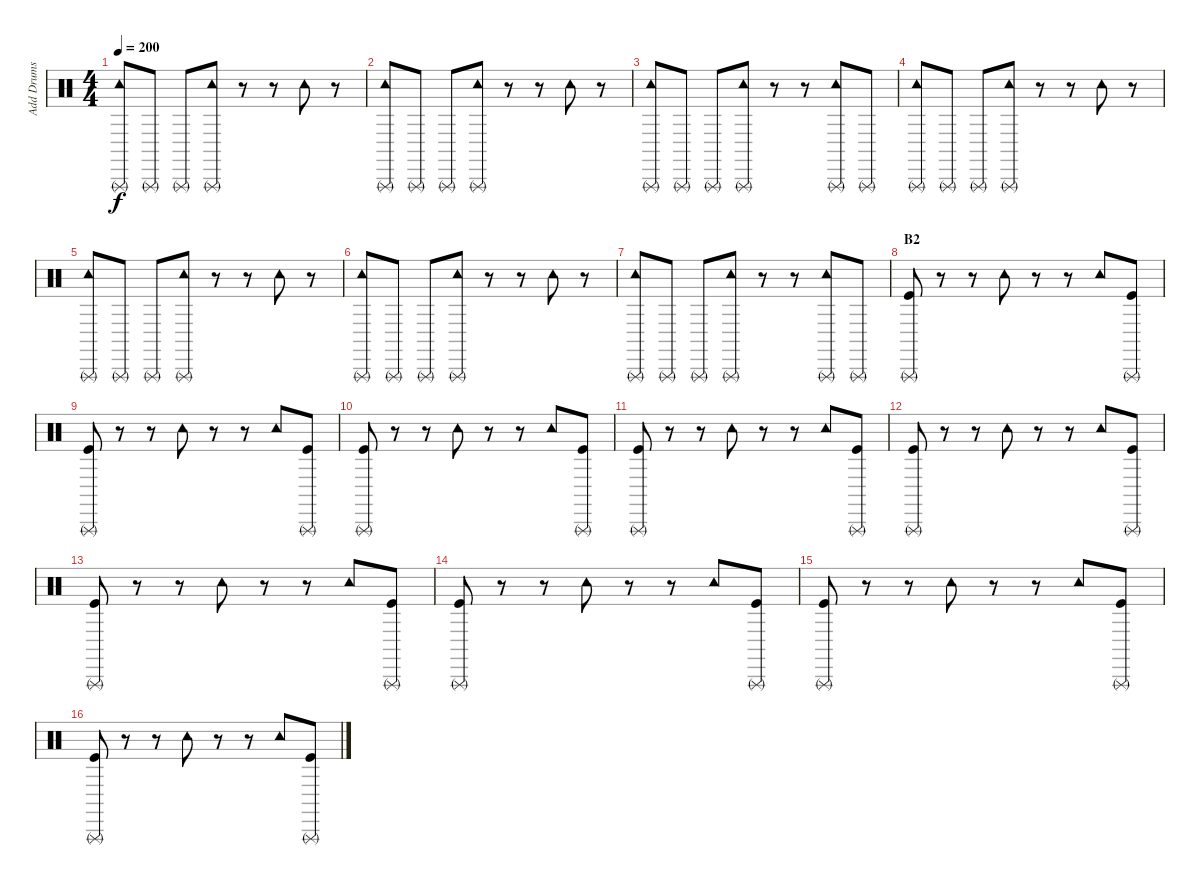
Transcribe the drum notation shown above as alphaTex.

\track ("Add Drums" "Add Drums") {instrument percussion}
\staff {score}
\articulation defaults
\ts (4 4)
\tempo 200
\clef neutral
\ks c
("Tambourine (hit)" "Triangle (rnute)").8{dy f} "Triangle (rnute)".8 "Triangle (rnute)".8 ("Tambourine (hit)" "Triangle (rnute)").8 r.8 r.8 "Tambourine (hit)".8 r.8 |
("Tambourine (hit)" "Triangle (rnute)").8 "Triangle (rnute)".8 "Triangle (rnute)".8 ("Tambourine (hit)" "Triangle (rnute)").8 r.8 r.8 "Tambourine (hit)".8 r.8 |
("Tambourine (hit)" "Triangle (rnute)").8 "Triangle (rnute)".8 "Triangle (rnute)".8 ("Tambourine (hit)" "Triangle (rnute)").8 r.8 r.8 ("Tambourine (hit)" "Triangle (rnute)").8 "Triangle (rnute)".8 |
("Tambourine (hit)" "Triangle (rnute)").8 "Triangle (rnute)".8 "Triangle (rnute)".8 ("Tambourine (hit)" "Triangle (rnute)").8 r.8 r.8 "Tambourine (hit)".8 r.8 |
("Tambourine (hit)" "Triangle (rnute)").8 "Triangle (rnute)".8 "Triangle (rnute)".8 ("Tambourine (hit)" "Triangle (rnute)").8 r.8 r.8 "Tambourine (hit)".8 r.8 |
("Tambourine (hit)" "Triangle (rnute)").8 "Triangle (rnute)".8 "Triangle (rnute)".8 ("Tambourine (hit)" "Triangle (rnute)").8 r.8 r.8 "Tambourine (hit)".8 r.8 |
("Tambourine (hit)" "Triangle (rnute)").8 "Triangle (rnute)".8 "Triangle (rnute)".8 ("Tambourine (hit)" "Triangle (rnute)").8 r.8 r.8 ("Tambourine (hit)" "Triangle (rnute)").8 "Triangle (rnute)".8 |
\section ("" "B2")
("Triangle (rnute)" "Kick (hit)").8 r.8 r.8 "Tambourine (hit)".8 r.8 r.8 "Tambourine (hit)".8 ("Triangle (rnute)" "Kick (hit)").8 |
("Triangle (rnute)" "Kick (hit)").8 r.8 r.8 "Tambourine (hit)".8 r.8 r.8 "Tambourine (hit)".8 ("Triangle (rnute)" "Kick (hit)").8 |
("Triangle (rnute)" "Kick (hit)").8 r.8 r.8 "Tambourine (hit)".8 r.8 r.8 "Tambourine (hit)".8 ("Triangle (rnute)" "Kick (hit)").8 |
("Triangle (rnute)" "Kick (hit)").8 r.8 r.8 "Tambourine (hit)".8 r.8 r.8 "Tambourine (hit)".8 ("Triangle (rnute)" "Kick (hit)").8 |
("Triangle (rnute)" "Kick (hit)").8 r.8 r.8 "Tambourine (hit)".8 r.8 r.8 "Tambourine (hit)".8 ("Triangle (rnute)" "Kick (hit)").8 |
("Triangle (rnute)" "Kick (hit)").8 r.8 r.8 "Tambourine (hit)".8 r.8 r.8 "Tambourine (hit)".8 ("Triangle (rnute)" "Kick (hit)").8 |
("Triangle (rnute)" "Kick (hit)").8 r.8 r.8 "Tambourine (hit)".8 r.8 r.8 "Tambourine (hit)".8 ("Triangle (rnute)" "Kick (hit)").8 |
("Triangle (rnute)" "Kick (hit)").8 r.8 r.8 "Tambourine (hit)".8 r.8 r.8 "Tambourine (hit)".8 ("Triangle (rnute)" "Kick (hit)").8 |
("Triangle (rnute)" "Kick (hit)").8 r.8 r.8 "Tambourine (hit)".8 r.8 r.8 "Tambourine (hit)".8 ("Triangle (rnute)" "Kick (hit)").8
